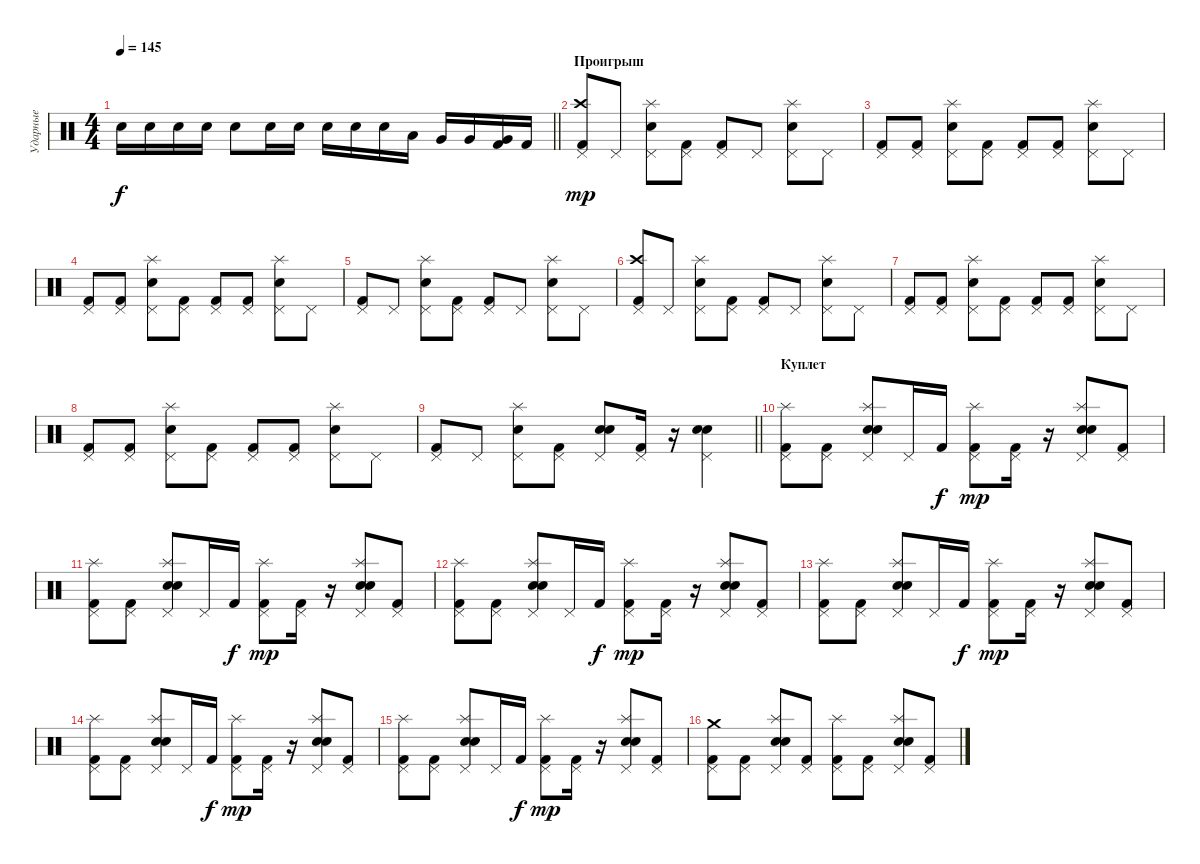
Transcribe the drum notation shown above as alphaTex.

\track ("Ударные" "Ударные") {instrument percussion}
\staff {score}
\articulation defaults
\ts (4 4)
\tempo 145
\clef neutral
\barLineRight lightlight
\ks c "Electric Snare (hit)".16{dy f} "Electric Snare (hit)".16 "Electric Snare (hit)".16 "Electric Snare (hit)".16 "Electric Snare (hit)".8 "Electric Snare (hit)".16 "Electric Snare (hit)".16 "Electric Snare (hit)".16 "Electric Snare (hit)".16 "Electric Snare (hit)".16 "Low Tom (hit)".16 "Very Low Tom (hit)".16 "Very Low Tom (hit)".16
("Very Low Tom (hit)" "Kick (hit) 2").16 "Kick (hit) 2".16 |
\section ("" "Проигрыш")
("Crash high (hit)" "Pedal Hi-Hat (hit)" "Kick (hit) 2").8{dy mp} "Pedal Hi-Hat (hit)".8 ("Splash (hit)" "Pedal Hi-Hat (hit)" "Electric Snare (hit)").8 ("Pedal Hi-Hat (hit)" "Kick (hit) 2").8 ("Pedal Hi-Hat (hit)" "Kick (hit) 2").8 "Pedal Hi-Hat (hit)".8 ("Splash (hit)" "Pedal Hi-Hat (hit)" "Electric Snare (hit)").8 "Pedal Hi-Hat (hit)".8 |
("Pedal Hi-Hat (hit)" "Kick (hit) 2").8 ("Pedal Hi-Hat (hit)" "Kick (hit) 2").8 ("Splash (hit)" "Pedal Hi-Hat (hit)" "Electric Snare (hit)").8 ("Pedal Hi-Hat (hit)" "Kick (hit) 2").8 ("Pedal Hi-Hat (hit)" "Kick (hit) 2").8 ("Pedal Hi-Hat (hit)" "Kick (hit) 2").8 ("Splash (hit)" "Pedal Hi-Hat (hit)" "Electric Snare (hit)").8 "Pedal Hi-Hat (hit)".8 |
("Pedal Hi-Hat (hit)" "Kick (hit) 2").8 ("Pedal Hi-Hat (hit)" "Kick (hit) 2").8 ("Splash (hit)" "Pedal Hi-Hat (hit)" "Electric Snare (hit)").8 ("Pedal Hi-Hat (hit)" "Kick (hit) 2").8 ("Pedal Hi-Hat (hit)" "Kick (hit) 2").8 ("Pedal Hi-Hat (hit)" "Kick (hit) 2").8 ("Splash (hit)" "Pedal Hi-Hat (hit)" "Electric Snare (hit)").8 "Pedal Hi-Hat (hit)".8 |
("Pedal Hi-Hat (hit)" "Kick (hit) 2").8 "Pedal Hi-Hat (hit)".8 ("Splash (hit)" "Pedal Hi-Hat (hit)" "Electric Snare (hit)").8 ("Pedal Hi-Hat (hit)" "Kick (hit) 2").8 ("Pedal Hi-Hat (hit)" "Kick (hit) 2").8 "Pedal Hi-Hat (hit)".8 ("Splash (hit)" "Pedal Hi-Hat (hit)" "Electric Snare (hit)").8 "Pedal Hi-Hat (hit)".8 |
("Crash high (hit)" "Pedal Hi-Hat (hit)" "Kick (hit) 2").8 "Pedal Hi-Hat (hit)".8 ("Splash (hit)" "Pedal Hi-Hat (hit)" "Electric Snare (hit)").8 ("Pedal Hi-Hat (hit)" "Kick (hit) 2").8 ("Pedal Hi-Hat (hit)" "Kick (hit) 2").8 "Pedal Hi-Hat (hit)".8 ("Splash (hit)" "Pedal Hi-Hat (hit)" "Electric Snare (hit)").8 "Pedal Hi-Hat (hit)".8 |
("Pedal Hi-Hat (hit)" "Kick (hit) 2").8 ("Pedal Hi-Hat (hit)" "Kick (hit) 2").8 ("Splash (hit)" "Pedal Hi-Hat (hit)" "Electric Snare (hit)").8 ("Pedal Hi-Hat (hit)" "Kick (hit) 2").8 ("Pedal Hi-Hat (hit)" "Kick (hit) 2").8 ("Pedal Hi-Hat (hit)" "Kick (hit) 2").8 ("Splash (hit)" "Pedal Hi-Hat (hit)" "Electric Snare (hit)").8 "Pedal Hi-Hat (hit)".8 |
("Pedal Hi-Hat (hit)" "Kick (hit) 2").8 ("Pedal Hi-Hat (hit)" "Kick (hit) 2").8 ("Splash (hit)" "Pedal Hi-Hat (hit)" "Electric Snare (hit)").8 ("Pedal Hi-Hat (hit)" "Kick (hit) 2").8 ("Pedal Hi-Hat (hit)" "Kick (hit) 2").8 ("Pedal Hi-Hat (hit)" "Kick (hit) 2").8 ("Splash (hit)" "Pedal Hi-Hat (hit)" "Electric Snare (hit)").8 "Pedal Hi-Hat (hit)".8 |
\barLineRight lightlight
("Pedal Hi-Hat (hit)" "Kick (hit) 2").8 "Pedal Hi-Hat (hit)".8 ("Splash (hit)" "Pedal Hi-Hat (hit)" "Electric Snare (hit)").8 ("Pedal Hi-Hat (hit)" "Kick (hit) 2").8 ("Pedal Hi-Hat (hit)" "Electric Snare (hit)" "Snare (hit) 2").8 ("Pedal Hi-Hat (hit)" "Kick (hit) 2").16 r.16 ("Pedal Hi-Hat (hit)" "Electric Snare (hit)" "Snare (hit) 2").4 |
\section ("" "Куплет")
("Splash (hit)" "Pedal Hi-Hat (hit)" "Kick (hit) 2").8 ("Pedal Hi-Hat (hit)" "Kick (hit) 2").8 ("Splash (hit)" "Pedal Hi-Hat (hit)" "Electric Snare (hit)" "Snare (hit) 2").8 "Pedal Hi-Hat (hit)".16 "Kick (hit) 2".16{dy f} ("Splash (hit)" "Pedal Hi-Hat (hit)" "Kick (hit) 2").8{dy mp} ("Pedal Hi-Hat (hit)" "Kick (hit) 2").16 r.16 ("Splash (hit)" "Pedal Hi-Hat (hit)" "Electric Snare (hit)" "Snare (hit) 2").8 ("Pedal Hi-Hat (hit)" "Kick (hit) 2").8 |
("Splash (hit)" "Pedal Hi-Hat (hit)" "Kick (hit) 2").8 ("Pedal Hi-Hat (hit)" "Kick (hit) 2").8 ("Splash (hit)" "Pedal Hi-Hat (hit)" "Electric Snare (hit)" "Snare (hit) 2").8 "Pedal Hi-Hat (hit)".16 "Kick (hit) 2".16{dy f} ("Splash (hit)" "Pedal Hi-Hat (hit)" "Kick (hit) 2").8{dy mp} ("Pedal Hi-Hat (hit)" "Kick (hit) 2").16 r.16 ("Splash (hit)" "Pedal Hi-Hat (hit)" "Electric Snare (hit)" "Snare (hit) 2").8 ("Pedal Hi-Hat (hit)" "Kick (hit) 2").8 |
("Splash (hit)" "Pedal Hi-Hat (hit)" "Kick (hit) 2").8 ("Pedal Hi-Hat (hit)" "Kick (hit) 2").8 ("Splash (hit)" "Pedal Hi-Hat (hit)" "Electric Snare (hit)" "Snare (hit) 2").8 "Pedal Hi-Hat (hit)".16 "Kick (hit) 2".16{dy f} ("Splash (hit)" "Pedal Hi-Hat (hit)" "Kick (hit) 2").8{dy mp} ("Pedal Hi-Hat (hit)" "Kick (hit) 2").16 r.16 ("Splash (hit)" "Pedal Hi-Hat (hit)" "Electric Snare (hit)" "Snare (hit) 2").8 ("Pedal Hi-Hat (hit)" "Kick (hit) 2").8 |
("Splash (hit)" "Pedal Hi-Hat (hit)" "Kick (hit) 2").8 ("Pedal Hi-Hat (hit)" "Kick (hit) 2").8 ("Splash (hit)" "Pedal Hi-Hat (hit)" "Electric Snare (hit)" "Snare (hit) 2").8 "Pedal Hi-Hat (hit)".16 "Kick (hit) 2".16{dy f} ("Splash (hit)" "Pedal Hi-Hat (hit)" "Kick (hit) 2").8{dy mp} ("Pedal Hi-Hat (hit)" "Kick (hit) 2").16 r.16 ("Splash (hit)" "Pedal Hi-Hat (hit)" "Electric Snare (hit)" "Snare (hit) 2").8 ("Pedal Hi-Hat (hit)" "Kick (hit) 2").8 |
("Splash (hit)" "Pedal Hi-Hat (hit)" "Kick (hit) 2").8 ("Pedal Hi-Hat (hit)" "Kick (hit) 2").8 ("Splash (hit)" "Pedal Hi-Hat (hit)" "Electric Snare (hit)" "Snare (hit) 2").8 "Pedal Hi-Hat (hit)".16 "Kick (hit) 2".16{dy f} ("Splash (hit)" "Pedal Hi-Hat (hit)" "Kick (hit) 2").8{dy mp} ("Pedal Hi-Hat (hit)" "Kick (hit) 2").16 r.16 ("Splash (hit)" "Pedal Hi-Hat (hit)" "Electric Snare (hit)" "Snare (hit) 2").8 ("Pedal Hi-Hat (hit)" "Kick (hit) 2").8 |
("Splash (hit)" "Pedal Hi-Hat (hit)" "Kick (hit) 2").8 ("Pedal Hi-Hat (hit)" "Kick (hit) 2").8 ("Splash (hit)" "Pedal Hi-Hat (hit)" "Electric Snare (hit)" "Snare (hit) 2").8 "Pedal Hi-Hat (hit)".16 "Kick (hit) 2".16{dy f} ("Splash (hit)" "Pedal Hi-Hat (hit)" "Kick (hit) 2").8{dy mp} ("Pedal Hi-Hat (hit)" "Kick (hit) 2").16 r.16 ("Splash (hit)" "Pedal Hi-Hat (hit)" "Electric Snare (hit)" "Snare (hit) 2").8 ("Pedal Hi-Hat (hit)" "Kick (hit) 2").8 |
("Crash medium (hit)" "Pedal Hi-Hat (hit)" "Kick (hit) 2").8 ("Pedal Hi-Hat (hit)" "Kick (hit) 2").8 ("Splash (hit)" "Pedal Hi-Hat (hit)" "Electric Snare (hit)" "Snare (hit) 2").8 ("Pedal Hi-Hat (hit)" "Kick (hit) 2").8 ("Splash (hit)" "Pedal Hi-Hat (hit)" "Kick (hit) 2").8 ("Pedal Hi-Hat (hit)" "Kick (hit) 2").8 ("Splash (hit)" "Pedal Hi-Hat (hit)" "Electric Snare (hit)" "Snare (hit) 2").8 ("Pedal Hi-Hat (hit)" "Kick (hit) 2").8
